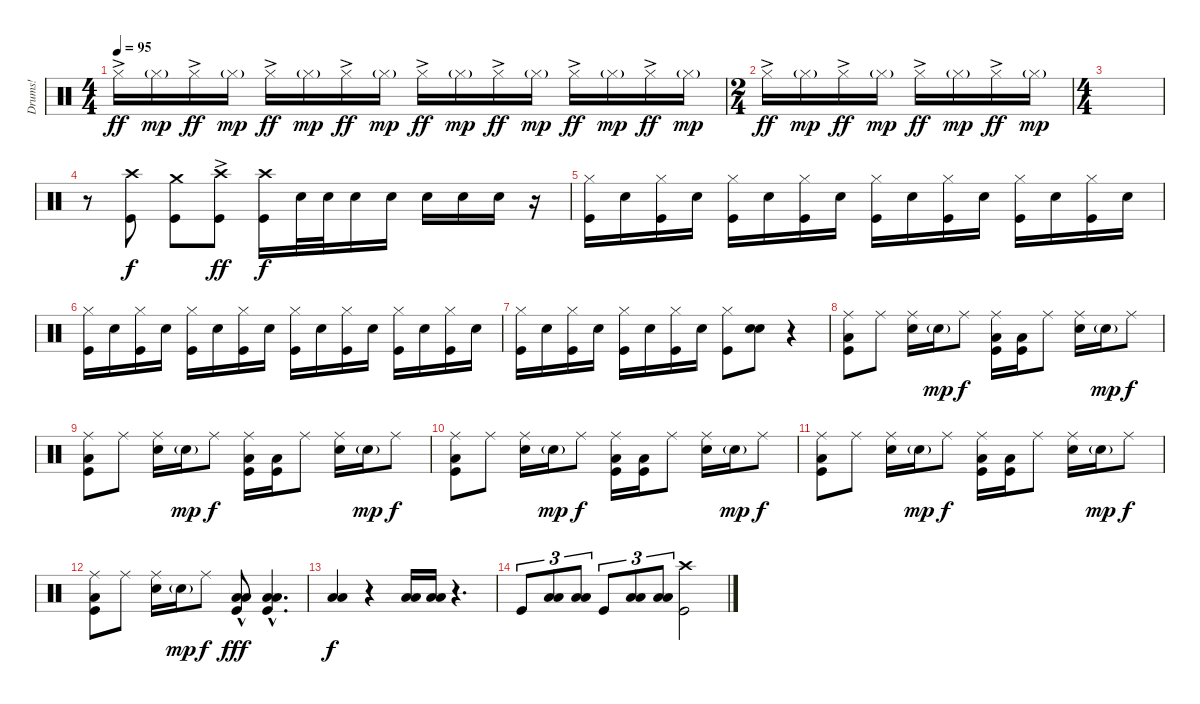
\track ("Drums!" "Drums!") {instrument percussion}
\staff {score}
\articulation defaults
\ts (4 4)
\tempo 95
\clef neutral
\ks c "Hi-Hat (closed)"{ac}.16{dy ff} "Hi-Hat (closed)"{g}.16{dy mp} "Hi-Hat (closed)"{ac}.16{dy ff} "Hi-Hat (closed)"{g}.16{dy mp} "Hi-Hat (closed)"{ac}.16{dy ff} "Hi-Hat (closed)"{g}.16{dy mp} "Hi-Hat (closed)"{ac}.16{dy ff} "Hi-Hat (closed)"{g}.16{dy mp} "Hi-Hat (closed)"{ac}.16{dy ff} "Hi-Hat (closed)"{g}.16{dy mp} "Hi-Hat (closed)"{ac}.16{dy ff} "Hi-Hat (closed)"{g}.16{dy mp} "Hi-Hat (closed)"{ac}.16{dy ff} "Hi-Hat (closed)"{g}.16{dy mp} "Hi-Hat (closed)"{ac}.16{dy ff} "Hi-Hat (closed)"{g}.16{dy mp}
|
\ts (2 4)
"Hi-Hat (closed)"{ac}.16{dy ff} "Hi-Hat (closed)"{g}.16{dy mp} "Hi-Hat (closed)"{ac}.16{dy ff} "Hi-Hat (closed)"{g}.16{dy mp} "Hi-Hat (closed)"{ac}.16{dy ff} "Hi-Hat (closed)"{g}.16{dy mp} "Hi-Hat (closed)"{ac}.16{dy ff} "Hi-Hat (closed)"{g}.16{dy mp} |
\ts (4 4)
|
r.8 ("Crash high (hit)" "Kick (hit)").8{dy f} ("Crash medium (hit)" "Kick (hit)").8 ("Crash high (hit)"{ac} "Kick (hit)").8{dy ff} ("Crash high (hit)" "Kick (hit)").16{dy f} "Electric Snare (hit)".32 "Electric Snare (hit)".32 "Electric Snare (hit)".16 "Electric Snare (hit)".16 "Electric Snare (hit)".16 "Electric Snare (hit)".16 "Electric Snare (hit)".16 r.16 |
("Hi-Hat (closed)" "Kick (hit)").16 "Electric Snare (hit)".16 ("Hi-Hat (closed)" "Kick (hit)").16 "Electric Snare (hit)".16 ("Hi-Hat (closed)" "Kick (hit)").16 "Electric Snare (hit)".16 ("Hi-Hat (closed)" "Kick (hit)").16 "Electric Snare (hit)".16 ("Hi-Hat (closed)" "Kick (hit)").16 "Electric Snare (hit)".16 ("Hi-Hat (closed)" "Kick (hit)").16 "Electric Snare (hit)".16 ("Hi-Hat (closed)" "Kick (hit)").16 "Electric Snare (hit)".16 ("Hi-Hat (closed)" "Kick (hit)").16 "Electric Snare (hit)".16 |
("Hi-Hat (closed)" "Kick (hit)").16 "Electric Snare (hit)".16 ("Hi-Hat (closed)" "Kick (hit)").16 "Electric Snare (hit)".16 ("Hi-Hat (closed)" "Kick (hit)").16 "Electric Snare (hit)".16 ("Hi-Hat (closed)" "Kick (hit)").16 "Electric Snare (hit)".16 ("Hi-Hat (closed)" "Kick (hit)").16 "Electric Snare (hit)".16 ("Hi-Hat (closed)" "Kick (hit)").16 "Electric Snare (hit)".16 ("Hi-Hat (closed)" "Kick (hit)").16 "Electric Snare (hit)".16 ("Hi-Hat (closed)" "Kick (hit)").16 "Electric Snare (hit)".16 |
("Hi-Hat (closed)" "Kick (hit)").16 "Electric Snare (hit)".16 ("Hi-Hat (closed)" "Kick (hit)").16 "Electric Snare (hit)".16 ("Hi-Hat (closed)" "Kick (hit)").16 "Electric Snare (hit)".16 ("Hi-Hat (closed)" "Kick (hit)").16 "Electric Snare (hit)".16 ("Hi-Hat (closed)" "Kick (hit)").8 ("Electric Snare (hit)" "Electric Snare (hit)").8 r.4 |
("Ride (middle)" "Low Floor Tom (hit)" "Kick (hit)").8 "Ride (middle)".8 ("Ride (middle)" "Electric Snare (hit)").16 "Electric Snare (hit)"{g}.16{dy mp} "Ride (middle)".8{dy f} ("Ride (middle)" "Low Floor Tom (hit)" "Kick (hit)").16 ("Low Floor Tom (hit)" "Kick (hit)").16 "Ride (middle)".8 ("Ride (middle)" "Electric Snare (hit)").16 "Electric Snare (hit)"{g}.16{dy mp} "Ride (middle)".8{dy f} |
("Ride (middle)" "Low Floor Tom (hit)" "Kick (hit)").8 "Ride (middle)".8 ("Ride (middle)" "Electric Snare (hit)").16 "Electric Snare (hit)"{g}.16{dy mp} "Ride (middle)".8{dy f} ("Ride (middle)" "Low Floor Tom (hit)" "Kick (hit)").16 ("Low Floor Tom (hit)" "Kick (hit)").16 "Ride (middle)".8 ("Ride (middle)" "Electric Snare (hit)").16 "Electric Snare (hit)"{g}.16{dy mp} "Ride (middle)".8{dy f} |
("Ride (middle)" "Low Floor Tom (hit)" "Kick (hit)").8 "Ride (middle)".8 ("Ride (middle)" "Electric Snare (hit)").16 "Electric Snare (hit)"{g}.16{dy mp} "Ride (middle)".8{dy f} ("Ride (middle)" "Low Floor Tom (hit)" "Kick (hit)").16 ("Low Floor Tom (hit)" "Kick (hit)").16 "Ride (middle)".8 ("Ride (middle)" "Electric Snare (hit)").16 "Electric Snare (hit)"{g}.16{dy mp} "Ride (middle)".8{dy f} |
("Ride (middle)" "Low Floor Tom (hit)" "Kick (hit)").8 "Ride (middle)".8 ("Ride (middle)" "Electric Snare (hit)").16 "Electric Snare (hit)"{g}.16{dy mp} "Ride (middle)".8{dy f} ("Ride (middle)" "Low Floor Tom (hit)" "Kick (hit)").16 ("Low Floor Tom (hit)" "Kick (hit)").16 "Ride (middle)".8 ("Ride (middle)" "Electric Snare (hit)").16 "Electric Snare (hit)"{g}.16{dy mp} "Ride (middle)".8{dy f} |
("Ride (middle)" "Low Floor Tom (hit)" "Kick (hit)").8 "Ride (middle)".8 ("Ride (middle)" "Electric Snare (hit)").16 "Electric Snare (hit)"{g}.16{dy mp} "Ride (middle)".8{dy f} ("Low Tom (hit)" "Low Floor Tom (hit)"{hac} "Kick (hit)"{hac}).8{dy fff} ("Low Tom (hit)" "Low Floor Tom (hit)"{hac} "Kick (hit)"{hac}).4{d} |
("Low Tom (hit)" "Low Floor Tom (hit)").4{dy f} r.4 ("Low Tom (hit)" "Low Floor Tom (hit)").16 ("Low Tom (hit)" "Low Floor Tom (hit)").16 r.4{d} |
"Kick (hit)".8{tu (3 2)} ("Low Tom (hit)" "Low Floor Tom (hit)").8{tu (3 2)} ("Low Tom (hit)" "Low Floor Tom (hit)").8{tu (3 2)} "Kick (hit)".8{tu (3 2)} ("Low Tom (hit)" "Low Floor Tom (hit)").8{tu (3 2)} ("Low Tom (hit)" "Low Floor Tom (hit)").8{tu (3 2)} ("Crash high (hit)" "Kick (hit)").2
